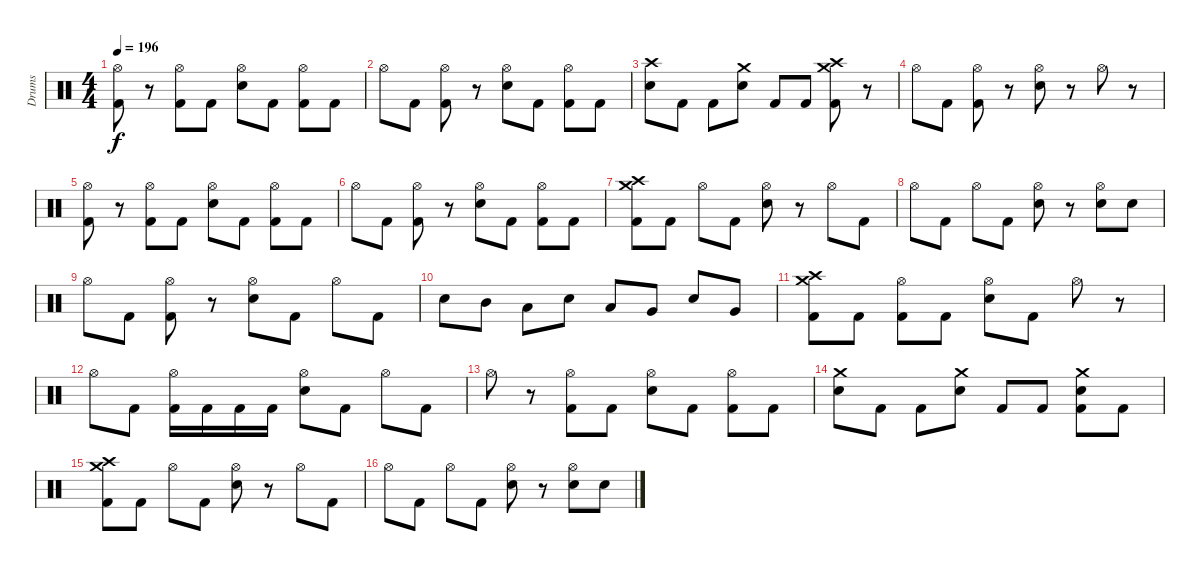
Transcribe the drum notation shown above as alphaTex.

\track ("Drums" "Drums") {instrument percussion}
\staff {score}
\articulation defaults
\ts (4 4)
\tempo 196
\clef neutral
\ks c
("Hi-Hat (open)" "Kick (hit) 2").8{dy f} r.8 ("Hi-Hat (open)" "Kick (hit) 2").8 "Kick (hit) 2".8 ("Hi-Hat (open)" "Snare (hit) 2").8 "Kick (hit) 2".8 ("Hi-Hat (open)" "Kick (hit) 2").8 "Kick (hit) 2".8 |
"Hi-Hat (open)".8 "Kick (hit) 2".8 ("Hi-Hat (open)" "Kick (hit) 2").8 r.8 ("Hi-Hat (open)" "Snare (hit) 2").8 "Kick (hit) 2".8 ("Hi-Hat (open)" "Kick (hit) 2").8 "Kick (hit) 2".8 |
("Crash high (hit)" "Snare (hit) 2").8 "Kick (hit) 2".8 "Kick (hit) 2".8 ("Crash medium (hit)" "Snare (hit) 2").8 "Kick (hit) 2".8 "Kick (hit) 2".8 ("Crash high (hit)" "Crash medium (hit)" "Kick (hit) 2").8 r.8 |
"Hi-Hat (open)".8 "Kick (hit) 2".8 ("Hi-Hat (open)" "Kick (hit) 2").8 r.8 ("Hi-Hat (open)" "Snare (hit) 2").8 r.8 "Hi-Hat (open)".8 r.8 |
("Hi-Hat (open)" "Kick (hit) 2").8 r.8 ("Hi-Hat (open)" "Kick (hit) 2").8 "Kick (hit) 2".8 ("Hi-Hat (open)" "Snare (hit) 2").8 "Kick (hit) 2".8 ("Hi-Hat (open)" "Kick (hit) 2").8 "Kick (hit) 2".8 |
"Hi-Hat (open)".8 "Kick (hit) 2".8 ("Hi-Hat (open)" "Kick (hit) 2").8 r.8 ("Hi-Hat (open)" "Snare (hit) 2").8 "Kick (hit) 2".8 ("Hi-Hat (open)" "Kick (hit) 2").8 "Kick (hit) 2".8 |
("Crash high (hit)" "Crash medium (hit)" "Kick (hit) 2").8 "Kick (hit) 2".8 "Hi-Hat (open)".8 "Kick (hit) 2".8 ("Hi-Hat (open)" "Snare (hit) 2").8 r.8 "Hi-Hat (open)".8 "Kick (hit) 2".8 |
"Hi-Hat (open)".8 "Kick (hit) 2".8 "Hi-Hat (open)".8 "Kick (hit) 2".8 ("Hi-Hat (open)" "Snare (hit) 2").8 r.8 ("Hi-Hat (open)" "Snare (hit) 2").8 "Snare (hit) 2".8 |
"Hi-Hat (open)".8 "Kick (hit) 2".8 ("Hi-Hat (open)" "Kick (hit) 2").8 r.8 ("Hi-Hat (open)" "Snare (hit) 2").8 "Kick (hit) 2".8 "Hi-Hat (open)".8 "Kick (hit) 2".8 |
"Snare (hit) 2".8 "Mid Tom (hit)".8 "Low Tom (hit)".8 "Snare (hit) 2".8 "Low Tom (hit)".8 "Very Low Tom (hit)".8 "Snare (hit) 2".8 "Very Low Tom (hit)".8 |
("Crash high (hit)" "Crash medium (hit)" "Kick (hit) 2").8 "Kick (hit) 2".8 ("Hi-Hat (open)" "Kick (hit) 2").8 "Kick (hit) 2".8 ("Hi-Hat (open)" "Snare (hit) 2").8 "Kick (hit) 2".8 "Hi-Hat (open)".8 r.8 |
"Hi-Hat (open)".8 "Kick (hit) 2".8 ("Hi-Hat (open)" "Kick (hit) 2").16 "Kick (hit) 2".16 "Kick (hit) 2".16 "Kick (hit) 2".16 ("Hi-Hat (open)" "Snare (hit) 2").8 "Kick (hit) 2".8 "Hi-Hat (open)".8 "Kick (hit) 2".8 |
"Hi-Hat (open)".8 r.8 ("Hi-Hat (open)" "Kick (hit) 2").8 "Kick (hit) 2".8 ("Hi-Hat (open)" "Snare (hit) 2").8 "Kick (hit) 2".8 ("Hi-Hat (open)" "Kick (hit) 2").8 "Kick (hit) 2".8 |
("Crash medium (hit)" "Snare (hit) 2").8 "Kick (hit) 2".8 "Kick (hit) 2".8 ("Crash medium (hit)" "Snare (hit) 2").8 "Kick (hit) 2".8 "Kick (hit) 2".8 ("Crash medium (hit)" "Snare (hit) 2" "Kick (hit) 2").8 "Kick (hit) 2".8 |
("Crash high (hit)" "Crash medium (hit)" "Kick (hit) 2").8 "Kick (hit) 2".8 "Hi-Hat (open)".8 "Kick (hit) 2".8 ("Hi-Hat (open)" "Snare (hit) 2").8 r.8 "Hi-Hat (open)".8 "Kick (hit) 2".8 |
"Hi-Hat (open)".8 "Kick (hit) 2".8 "Hi-Hat (open)".8 "Kick (hit) 2".8 ("Hi-Hat (open)" "Snare (hit) 2").8 r.8 ("Hi-Hat (open)" "Snare (hit) 2").8 "Snare (hit) 2".8
